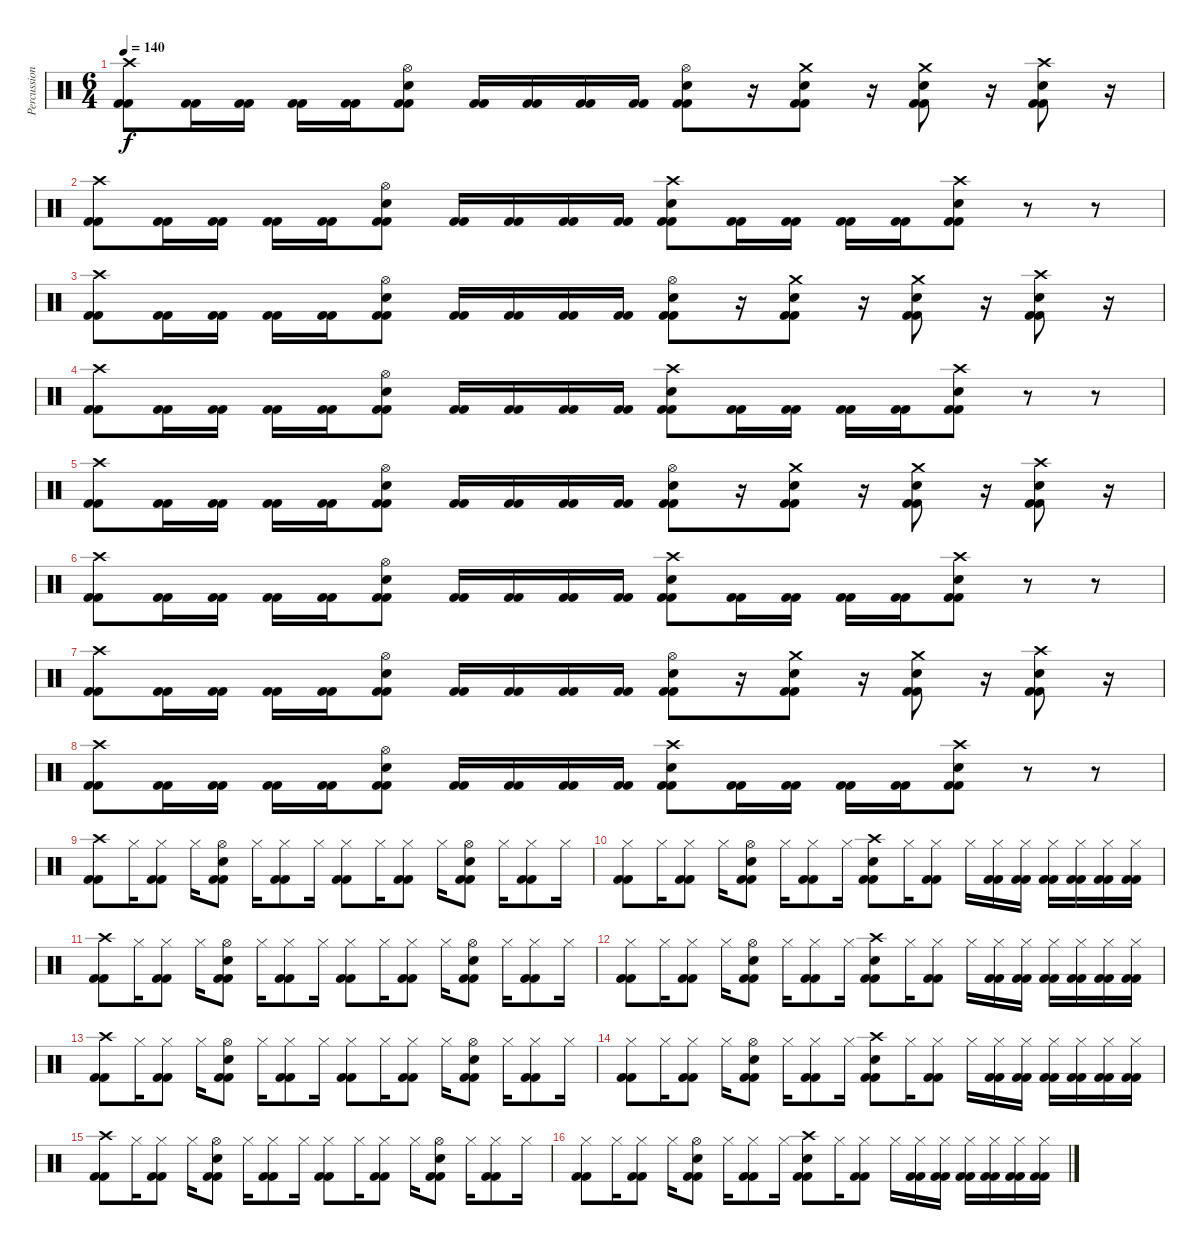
\track ("Percussion" "Percussion") {instrument percussion}
\staff {score}
\articulation defaults
\ts (6 4)
\tempo 140
\clef neutral
\ks c
("Crash high (hit)" "Kick (hit) 2" "Kick (hit) 2").8{dy f} ("Kick (hit) 2" "Kick (hit) 2").16 ("Kick (hit) 2" "Kick (hit) 2").16 ("Kick (hit) 2" "Kick (hit) 2").16 ("Kick (hit) 2" "Kick (hit) 2").16 ("Electric Snare (hit)" "Hi-Hat (open)" "Kick (hit) 2" "Kick (hit) 2").8 ("Kick (hit) 2" "Kick (hit) 2").16 ("Kick (hit) 2" "Kick (hit) 2").16 ("Kick (hit) 2" "Kick (hit) 2").16 ("Kick (hit) 2" "Kick (hit) 2").16 ("Electric Snare (hit)" "Hi-Hat (open)" "Kick (hit) 2" "Kick (hit) 2").8 r.16 ("Crash medium (hit)" "Electric Snare (hit)" "Kick (hit) 2" "Kick (hit) 2").8 r.16 ("Crash medium (hit)" "Electric Snare (hit)" "Kick (hit) 2" "Kick (hit) 2").8 r.16 ("Crash high (hit)" "Electric Snare (hit)" "Kick (hit) 2" "Kick (hit) 2").8 r.16 |
("Crash high (hit)" "Kick (hit) 2" "Kick (hit) 2").8 ("Kick (hit) 2" "Kick (hit) 2").16 ("Kick (hit) 2" "Kick (hit) 2").16 ("Kick (hit) 2" "Kick (hit) 2").16 ("Kick (hit) 2" "Kick (hit) 2").16 ("Electric Snare (hit)" "Hi-Hat (open)" "Kick (hit) 2" "Kick (hit) 2").8 ("Kick (hit) 2" "Kick (hit) 2").16 ("Kick (hit) 2" "Kick (hit) 2").16 ("Kick (hit) 2" "Kick (hit) 2").16 ("Kick (hit) 2" "Kick (hit) 2").16 ("Crash high (hit)" "Electric Snare (hit)" "Kick (hit) 2" "Kick (hit) 2").8 ("Kick (hit) 2" "Kick (hit) 2").16 ("Kick (hit) 2" "Kick (hit) 2").16 ("Kick (hit) 2" "Kick (hit) 2").16 ("Kick (hit) 2" "Kick (hit) 2").16 ("Crash high (hit)" "Electric Snare (hit)" "Kick (hit) 2" "Kick (hit) 2").8 r.8 r.8 |
("Crash high (hit)" "Kick (hit) 2" "Kick (hit) 2").8 ("Kick (hit) 2" "Kick (hit) 2").16 ("Kick (hit) 2" "Kick (hit) 2").16 ("Kick (hit) 2" "Kick (hit) 2").16 ("Kick (hit) 2" "Kick (hit) 2").16 ("Electric Snare (hit)" "Hi-Hat (open)" "Kick (hit) 2" "Kick (hit) 2").8 ("Kick (hit) 2" "Kick (hit) 2").16 ("Kick (hit) 2" "Kick (hit) 2").16 ("Kick (hit) 2" "Kick (hit) 2").16 ("Kick (hit) 2" "Kick (hit) 2").16 ("Electric Snare (hit)" "Hi-Hat (open)" "Kick (hit) 2" "Kick (hit) 2").8 r.16 ("Crash medium (hit)" "Electric Snare (hit)" "Kick (hit) 2" "Kick (hit) 2").8 r.16 ("Crash medium (hit)" "Electric Snare (hit)" "Kick (hit) 2" "Kick (hit) 2").8 r.16 ("Crash high (hit)" "Electric Snare (hit)" "Kick (hit) 2" "Kick (hit) 2").8 r.16 |
("Crash high (hit)" "Kick (hit) 2" "Kick (hit) 2").8 ("Kick (hit) 2" "Kick (hit) 2").16 ("Kick (hit) 2" "Kick (hit) 2").16 ("Kick (hit) 2" "Kick (hit) 2").16 ("Kick (hit) 2" "Kick (hit) 2").16 ("Electric Snare (hit)" "Hi-Hat (open)" "Kick (hit) 2" "Kick (hit) 2").8 ("Kick (hit) 2" "Kick (hit) 2").16 ("Kick (hit) 2" "Kick (hit) 2").16 ("Kick (hit) 2" "Kick (hit) 2").16 ("Kick (hit) 2" "Kick (hit) 2").16 ("Crash high (hit)" "Electric Snare (hit)" "Kick (hit) 2" "Kick (hit) 2").8 ("Kick (hit) 2" "Kick (hit) 2").16 ("Kick (hit) 2" "Kick (hit) 2").16 ("Kick (hit) 2" "Kick (hit) 2").16 ("Kick (hit) 2" "Kick (hit) 2").16 ("Crash high (hit)" "Electric Snare (hit)" "Kick (hit) 2" "Kick (hit) 2").8 r.8 r.8 |
("Crash high (hit)" "Kick (hit) 2" "Kick (hit) 2").8 ("Kick (hit) 2" "Kick (hit) 2").16 ("Kick (hit) 2" "Kick (hit) 2").16 ("Kick (hit) 2" "Kick (hit) 2").16 ("Kick (hit) 2" "Kick (hit) 2").16 ("Electric Snare (hit)" "Hi-Hat (open)" "Kick (hit) 2" "Kick (hit) 2").8 ("Kick (hit) 2" "Kick (hit) 2").16 ("Kick (hit) 2" "Kick (hit) 2").16 ("Kick (hit) 2" "Kick (hit) 2").16 ("Kick (hit) 2" "Kick (hit) 2").16 ("Electric Snare (hit)" "Hi-Hat (open)" "Kick (hit) 2" "Kick (hit) 2").8 r.16 ("Crash medium (hit)" "Electric Snare (hit)" "Kick (hit) 2" "Kick (hit) 2").8 r.16 ("Crash medium (hit)" "Electric Snare (hit)" "Kick (hit) 2" "Kick (hit) 2").8 r.16 ("Crash high (hit)" "Electric Snare (hit)" "Kick (hit) 2" "Kick (hit) 2").8 r.16 |
("Crash high (hit)" "Kick (hit) 2" "Kick (hit) 2").8 ("Kick (hit) 2" "Kick (hit) 2").16 ("Kick (hit) 2" "Kick (hit) 2").16 ("Kick (hit) 2" "Kick (hit) 2").16 ("Kick (hit) 2" "Kick (hit) 2").16 ("Electric Snare (hit)" "Hi-Hat (open)" "Kick (hit) 2" "Kick (hit) 2").8 ("Kick (hit) 2" "Kick (hit) 2").16 ("Kick (hit) 2" "Kick (hit) 2").16 ("Kick (hit) 2" "Kick (hit) 2").16 ("Kick (hit) 2" "Kick (hit) 2").16 ("Crash high (hit)" "Electric Snare (hit)" "Kick (hit) 2" "Kick (hit) 2").8 ("Kick (hit) 2" "Kick (hit) 2").16 ("Kick (hit) 2" "Kick (hit) 2").16 ("Kick (hit) 2" "Kick (hit) 2").16 ("Kick (hit) 2" "Kick (hit) 2").16 ("Crash high (hit)" "Electric Snare (hit)" "Kick (hit) 2" "Kick (hit) 2").8 r.8 r.8 |
("Crash high (hit)" "Kick (hit) 2" "Kick (hit) 2").8 ("Kick (hit) 2" "Kick (hit) 2").16 ("Kick (hit) 2" "Kick (hit) 2").16 ("Kick (hit) 2" "Kick (hit) 2").16 ("Kick (hit) 2" "Kick (hit) 2").16 ("Electric Snare (hit)" "Hi-Hat (open)" "Kick (hit) 2" "Kick (hit) 2").8 ("Kick (hit) 2" "Kick (hit) 2").16 ("Kick (hit) 2" "Kick (hit) 2").16 ("Kick (hit) 2" "Kick (hit) 2").16 ("Kick (hit) 2" "Kick (hit) 2").16 ("Electric Snare (hit)" "Hi-Hat (open)" "Kick (hit) 2" "Kick (hit) 2").8 r.16 ("Crash medium (hit)" "Electric Snare (hit)" "Kick (hit) 2" "Kick (hit) 2").8 r.16 ("Crash medium (hit)" "Electric Snare (hit)" "Kick (hit) 2" "Kick (hit) 2").8 r.16 ("Crash high (hit)" "Electric Snare (hit)" "Kick (hit) 2" "Kick (hit) 2").8 r.16 |
("Crash high (hit)" "Kick (hit) 2" "Kick (hit) 2").8 ("Kick (hit) 2" "Kick (hit) 2").16 ("Kick (hit) 2" "Kick (hit) 2").16 ("Kick (hit) 2" "Kick (hit) 2").16 ("Kick (hit) 2" "Kick (hit) 2").16 ("Electric Snare (hit)" "Hi-Hat (open)" "Kick (hit) 2" "Kick (hit) 2").8 ("Kick (hit) 2" "Kick (hit) 2").16 ("Kick (hit) 2" "Kick (hit) 2").16 ("Kick (hit) 2" "Kick (hit) 2").16 ("Kick (hit) 2" "Kick (hit) 2").16 ("Crash high (hit)" "Electric Snare (hit)" "Kick (hit) 2" "Kick (hit) 2").8 ("Kick (hit) 2" "Kick (hit) 2").16 ("Kick (hit) 2" "Kick (hit) 2").16 ("Kick (hit) 2" "Kick (hit) 2").16 ("Kick (hit) 2" "Kick (hit) 2").16 ("Crash high (hit)" "Electric Snare (hit)" "Kick (hit) 2" "Kick (hit) 2").8 r.8 r.8 |
("Crash high (hit)" "Kick (hit) 2" "Kick (hit) 2").8 "Hi-Hat (closed)".16 ("Hi-Hat (closed)" "Kick (hit) 2" "Kick (hit) 2").8 "Hi-Hat (closed)".16 ("Electric Snare (hit)" "Hi-Hat (open)" "Kick (hit) 2" "Kick (hit) 2").8 "Hi-Hat (closed)".16 ("Hi-Hat (closed)" "Kick (hit) 2" "Kick (hit) 2").8 "Hi-Hat (closed)".16 ("Hi-Hat (closed)" "Kick (hit) 2" "Kick (hit) 2").8 "Hi-Hat (closed)".16 ("Hi-Hat (closed)" "Kick (hit) 2" "Kick (hit) 2").8 "Hi-Hat (closed)".16 ("Electric Snare (hit)" "Hi-Hat (open)" "Kick (hit) 2" "Kick (hit) 2").8 "Hi-Hat (closed)".16 ("Hi-Hat (closed)" "Kick (hit) 2" "Kick (hit) 2").8 "Hi-Hat (closed)".16 |
("Hi-Hat (closed)" "Kick (hit) 2" "Kick (hit) 2").8 "Hi-Hat (closed)".16 ("Hi-Hat (closed)" "Kick (hit) 2" "Kick (hit) 2").8 "Hi-Hat (closed)".16 ("Electric Snare (hit)" "Hi-Hat (open)" "Kick (hit) 2" "Kick (hit) 2").8 "Hi-Hat (closed)".16 ("Hi-Hat (closed)" "Kick (hit) 2" "Kick (hit) 2").8 "Hi-Hat (closed)".16 ("Crash high (hit)" "Electric Snare (hit)" "Kick (hit) 2" "Kick (hit) 2").8 "Hi-Hat (closed)".16 ("Hi-Hat (closed)" "Kick (hit) 2" "Kick (hit) 2").8 "Hi-Hat (closed)".16 ("Hi-Hat (closed)" "Kick (hit) 2" "Kick (hit) 2").16 ("Hi-Hat (closed)" "Kick (hit) 2" "Kick (hit) 2").16 ("Hi-Hat (closed)" "Kick (hit) 2" "Kick (hit) 2").16 ("Hi-Hat (closed)" "Kick (hit) 2" "Kick (hit) 2").16 ("Hi-Hat (closed)" "Kick (hit) 2" "Kick (hit) 2").16 ("Hi-Hat (closed)" "Kick (hit) 2" "Kick (hit) 2").16 |
("Crash high (hit)" "Kick (hit) 2" "Kick (hit) 2").8 "Hi-Hat (closed)".16 ("Hi-Hat (closed)" "Kick (hit) 2" "Kick (hit) 2").8 "Hi-Hat (closed)".16 ("Electric Snare (hit)" "Hi-Hat (open)" "Kick (hit) 2" "Kick (hit) 2").8 "Hi-Hat (closed)".16 ("Hi-Hat (closed)" "Kick (hit) 2" "Kick (hit) 2").8 "Hi-Hat (closed)".16 ("Hi-Hat (closed)" "Kick (hit) 2" "Kick (hit) 2").8 "Hi-Hat (closed)".16 ("Hi-Hat (closed)" "Kick (hit) 2" "Kick (hit) 2").8 "Hi-Hat (closed)".16 ("Electric Snare (hit)" "Hi-Hat (open)" "Kick (hit) 2" "Kick (hit) 2").8 "Hi-Hat (closed)".16 ("Hi-Hat (closed)" "Kick (hit) 2" "Kick (hit) 2").8 "Hi-Hat (closed)".16 |
("Hi-Hat (closed)" "Kick (hit) 2" "Kick (hit) 2").8 "Hi-Hat (closed)".16 ("Hi-Hat (closed)" "Kick (hit) 2" "Kick (hit) 2").8 "Hi-Hat (closed)".16 ("Electric Snare (hit)" "Hi-Hat (open)" "Kick (hit) 2" "Kick (hit) 2").8 "Hi-Hat (closed)".16 ("Hi-Hat (closed)" "Kick (hit) 2" "Kick (hit) 2").8 "Hi-Hat (closed)".16 ("Crash high (hit)" "Electric Snare (hit)" "Kick (hit) 2" "Kick (hit) 2").8 "Hi-Hat (closed)".16 ("Hi-Hat (closed)" "Kick (hit) 2" "Kick (hit) 2").8 "Hi-Hat (closed)".16 ("Hi-Hat (closed)" "Kick (hit) 2" "Kick (hit) 2").16 ("Hi-Hat (closed)" "Kick (hit) 2" "Kick (hit) 2").16 ("Hi-Hat (closed)" "Kick (hit) 2" "Kick (hit) 2").16 ("Hi-Hat (closed)" "Kick (hit) 2" "Kick (hit) 2").16 ("Hi-Hat (closed)" "Kick (hit) 2" "Kick (hit) 2").16 ("Hi-Hat (closed)" "Kick (hit) 2" "Kick (hit) 2").16 |
("Crash high (hit)" "Kick (hit) 2" "Kick (hit) 2").8 "Hi-Hat (closed)".16 ("Hi-Hat (closed)" "Kick (hit) 2" "Kick (hit) 2").8 "Hi-Hat (closed)".16 ("Electric Snare (hit)" "Hi-Hat (open)" "Kick (hit) 2" "Kick (hit) 2").8 "Hi-Hat (closed)".16 ("Hi-Hat (closed)" "Kick (hit) 2" "Kick (hit) 2").8 "Hi-Hat (closed)".16 ("Hi-Hat (closed)" "Kick (hit) 2" "Kick (hit) 2").8 "Hi-Hat (closed)".16 ("Hi-Hat (closed)" "Kick (hit) 2" "Kick (hit) 2").8 "Hi-Hat (closed)".16 ("Electric Snare (hit)" "Hi-Hat (open)" "Kick (hit) 2" "Kick (hit) 2").8 "Hi-Hat (closed)".16 ("Hi-Hat (closed)" "Kick (hit) 2" "Kick (hit) 2").8 "Hi-Hat (closed)".16 |
("Hi-Hat (closed)" "Kick (hit) 2" "Kick (hit) 2").8 "Hi-Hat (closed)".16 ("Hi-Hat (closed)" "Kick (hit) 2" "Kick (hit) 2").8 "Hi-Hat (closed)".16 ("Electric Snare (hit)" "Hi-Hat (open)" "Kick (hit) 2" "Kick (hit) 2").8 "Hi-Hat (closed)".16 ("Hi-Hat (closed)" "Kick (hit) 2" "Kick (hit) 2").8 "Hi-Hat (closed)".16 ("Crash high (hit)" "Electric Snare (hit)" "Kick (hit) 2" "Kick (hit) 2").8 "Hi-Hat (closed)".16 ("Hi-Hat (closed)" "Kick (hit) 2" "Kick (hit) 2").8 "Hi-Hat (closed)".16 ("Hi-Hat (closed)" "Kick (hit) 2" "Kick (hit) 2").16 ("Hi-Hat (closed)" "Kick (hit) 2" "Kick (hit) 2").16 ("Hi-Hat (closed)" "Kick (hit) 2" "Kick (hit) 2").16 ("Hi-Hat (closed)" "Kick (hit) 2" "Kick (hit) 2").16 ("Hi-Hat (closed)" "Kick (hit) 2" "Kick (hit) 2").16 ("Hi-Hat (closed)" "Kick (hit) 2" "Kick (hit) 2").16 |
("Crash high (hit)" "Kick (hit) 2" "Kick (hit) 2").8 "Hi-Hat (closed)".16 ("Hi-Hat (closed)" "Kick (hit) 2" "Kick (hit) 2").8 "Hi-Hat (closed)".16 ("Electric Snare (hit)" "Hi-Hat (open)" "Kick (hit) 2" "Kick (hit) 2").8 "Hi-Hat (closed)".16 ("Hi-Hat (closed)" "Kick (hit) 2" "Kick (hit) 2").8 "Hi-Hat (closed)".16 ("Hi-Hat (closed)" "Kick (hit) 2" "Kick (hit) 2").8 "Hi-Hat (closed)".16 ("Hi-Hat (closed)" "Kick (hit) 2" "Kick (hit) 2").8 "Hi-Hat (closed)".16 ("Electric Snare (hit)" "Hi-Hat (open)" "Kick (hit) 2" "Kick (hit) 2").8 "Hi-Hat (closed)".16 ("Hi-Hat (closed)" "Kick (hit) 2" "Kick (hit) 2").8 "Hi-Hat (closed)".16 |
("Hi-Hat (closed)" "Kick (hit) 2" "Kick (hit) 2").8 "Hi-Hat (closed)".16 ("Hi-Hat (closed)" "Kick (hit) 2" "Kick (hit) 2").8 "Hi-Hat (closed)".16 ("Electric Snare (hit)" "Hi-Hat (open)" "Kick (hit) 2" "Kick (hit) 2").8 "Hi-Hat (closed)".16 ("Hi-Hat (closed)" "Kick (hit) 2" "Kick (hit) 2").8 "Hi-Hat (closed)".16 ("Crash high (hit)" "Electric Snare (hit)" "Kick (hit) 2" "Kick (hit) 2").8 "Hi-Hat (closed)".16 ("Hi-Hat (closed)" "Kick (hit) 2" "Kick (hit) 2").8 "Hi-Hat (closed)".16 ("Hi-Hat (closed)" "Kick (hit) 2" "Kick (hit) 2").16 ("Hi-Hat (closed)" "Kick (hit) 2" "Kick (hit) 2").16 ("Hi-Hat (closed)" "Kick (hit) 2" "Kick (hit) 2").16 ("Hi-Hat (closed)" "Kick (hit) 2" "Kick (hit) 2").16 ("Hi-Hat (closed)" "Kick (hit) 2" "Kick (hit) 2").16 ("Hi-Hat (closed)" "Kick (hit) 2" "Kick (hit) 2").16
